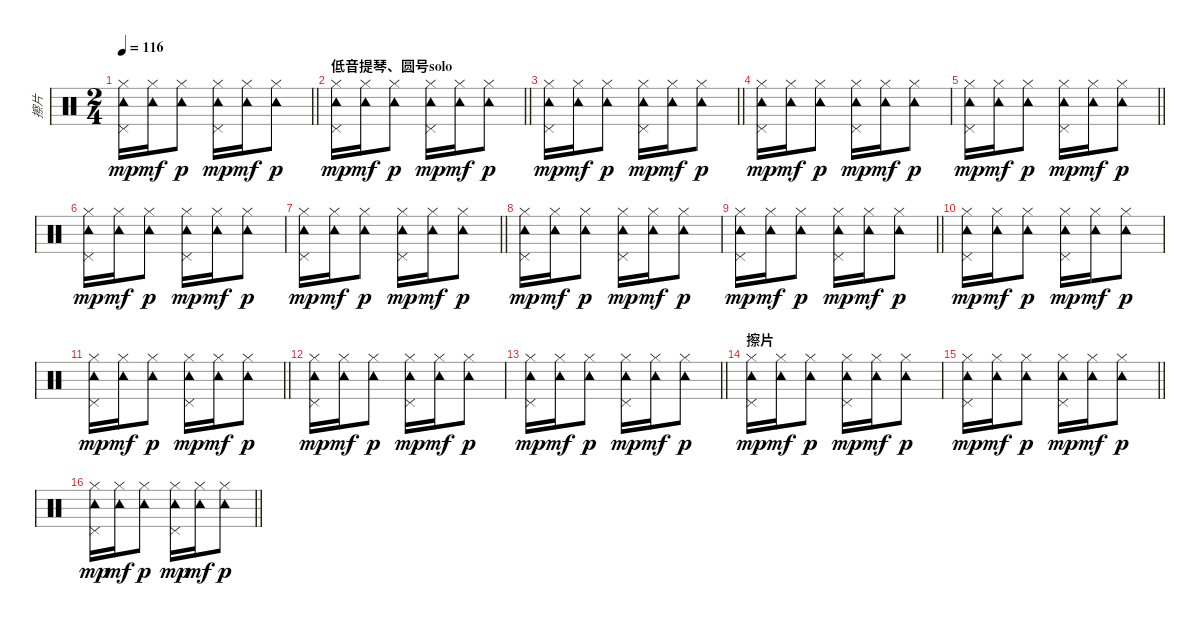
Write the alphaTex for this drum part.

\track ("擦片" "擦片") {instrument percussion}
\staff {score}
\articulation defaults
\ts (2 4)
\tempo 116
\clef neutral
\barLineRight lightlight
\ks c
("Hi-Hat (closed)" "Tambourine (hit)" "Pedal Hi-Hat (hit)").16{dy mp} ("Hi-Hat (closed)" "Tambourine (hit)").16{dy mf} ("Hi-Hat (closed)" "Tambourine (hit)").8{dy p} ("Hi-Hat (closed)" "Tambourine (hit)" "Pedal Hi-Hat (hit)").16{dy mp} ("Hi-Hat (closed)" "Tambourine (hit)").16{dy mf} ("Hi-Hat (closed)" "Tambourine (hit)").8{dy p} |
\section ("" "低音提琴、圆号solo")
\barLineRight lightlight
("Hi-Hat (closed)" "Tambourine (hit)" "Pedal Hi-Hat (hit)").16{dy mp} ("Hi-Hat (closed)" "Tambourine (hit)").16{dy mf} ("Hi-Hat (closed)" "Tambourine (hit)").8{dy p} ("Hi-Hat (closed)" "Tambourine (hit)" "Pedal Hi-Hat (hit)").16{dy mp} ("Hi-Hat (closed)" "Tambourine (hit)").16{dy mf} ("Hi-Hat (closed)" "Tambourine (hit)").8{dy p} |
\barLineRight lightlight
("Hi-Hat (closed)" "Tambourine (hit)" "Pedal Hi-Hat (hit)").16{dy mp} ("Hi-Hat (closed)" "Tambourine (hit)").16{dy mf} ("Hi-Hat (closed)" "Tambourine (hit)").8{dy p} ("Hi-Hat (closed)" "Tambourine (hit)" "Pedal Hi-Hat (hit)").16{dy mp} ("Hi-Hat (closed)" "Tambourine (hit)").16{dy mf} ("Hi-Hat (closed)" "Tambourine (hit)").8{dy p} |
("Hi-Hat (closed)" "Tambourine (hit)" "Pedal Hi-Hat (hit)").16{dy mp} ("Hi-Hat (closed)" "Tambourine (hit)").16{dy mf} ("Hi-Hat (closed)" "Tambourine (hit)").8{dy p} ("Hi-Hat (closed)" "Tambourine (hit)" "Pedal Hi-Hat (hit)").16{dy mp} ("Hi-Hat (closed)" "Tambourine (hit)").16{dy mf} ("Hi-Hat (closed)" "Tambourine (hit)").8{dy p} |
\barLineRight lightlight
("Hi-Hat (closed)" "Tambourine (hit)" "Pedal Hi-Hat (hit)").16{dy mp} ("Hi-Hat (closed)" "Tambourine (hit)").16{dy mf} ("Hi-Hat (closed)" "Tambourine (hit)").8{dy p} ("Hi-Hat (closed)" "Tambourine (hit)" "Pedal Hi-Hat (hit)").16{dy mp} ("Hi-Hat (closed)" "Tambourine (hit)").16{dy mf} ("Hi-Hat (closed)" "Tambourine (hit)").8{dy p} |
("Hi-Hat (closed)" "Tambourine (hit)" "Pedal Hi-Hat (hit)").16{dy mp} ("Hi-Hat (closed)" "Tambourine (hit)").16{dy mf} ("Hi-Hat (closed)" "Tambourine (hit)").8{dy p} ("Hi-Hat (closed)" "Tambourine (hit)" "Pedal Hi-Hat (hit)").16{dy mp} ("Hi-Hat (closed)" "Tambourine (hit)").16{dy mf} ("Hi-Hat (closed)" "Tambourine (hit)").8{dy p} |
\barLineRight lightlight
("Hi-Hat (closed)" "Tambourine (hit)" "Pedal Hi-Hat (hit)").16{dy mp} ("Hi-Hat (closed)" "Tambourine (hit)").16{dy mf} ("Hi-Hat (closed)" "Tambourine (hit)").8{dy p} ("Hi-Hat (closed)" "Tambourine (hit)" "Pedal Hi-Hat (hit)").16{dy mp} ("Hi-Hat (closed)" "Tambourine (hit)").16{dy mf} ("Hi-Hat (closed)" "Tambourine (hit)").8{dy p} |
("Hi-Hat (closed)" "Tambourine (hit)" "Pedal Hi-Hat (hit)").16{dy mp} ("Hi-Hat (closed)" "Tambourine (hit)").16{dy mf} ("Hi-Hat (closed)" "Tambourine (hit)").8{dy p} ("Hi-Hat (closed)" "Tambourine (hit)" "Pedal Hi-Hat (hit)").16{dy mp} ("Hi-Hat (closed)" "Tambourine (hit)").16{dy mf} ("Hi-Hat (closed)" "Tambourine (hit)").8{dy p} |
\barLineRight lightlight
("Hi-Hat (closed)" "Tambourine (hit)" "Pedal Hi-Hat (hit)").16{dy mp} ("Hi-Hat (closed)" "Tambourine (hit)").16{dy mf} ("Hi-Hat (closed)" "Tambourine (hit)").8{dy p} ("Hi-Hat (closed)" "Tambourine (hit)" "Pedal Hi-Hat (hit)").16{dy mp} ("Hi-Hat (closed)" "Tambourine (hit)").16{dy mf} ("Hi-Hat (closed)" "Tambourine (hit)").8{dy p} |
("Hi-Hat (closed)" "Tambourine (hit)" "Pedal Hi-Hat (hit)").16{dy mp} ("Hi-Hat (closed)" "Tambourine (hit)").16{dy mf} ("Hi-Hat (closed)" "Tambourine (hit)").8{dy p} ("Hi-Hat (closed)" "Tambourine (hit)" "Pedal Hi-Hat (hit)").16{dy mp} ("Hi-Hat (closed)" "Tambourine (hit)").16{dy mf} ("Hi-Hat (closed)" "Tambourine (hit)").8{dy p} |
\barLineRight lightlight
("Hi-Hat (closed)" "Tambourine (hit)" "Pedal Hi-Hat (hit)").16{dy mp} ("Hi-Hat (closed)" "Tambourine (hit)").16{dy mf} ("Hi-Hat (closed)" "Tambourine (hit)").8{dy p} ("Hi-Hat (closed)" "Tambourine (hit)" "Pedal Hi-Hat (hit)").16{dy mp} ("Hi-Hat (closed)" "Tambourine (hit)").16{dy mf} ("Hi-Hat (closed)" "Tambourine (hit)").8{dy p} |
("Hi-Hat (closed)" "Tambourine (hit)" "Pedal Hi-Hat (hit)").16{dy mp} ("Hi-Hat (closed)" "Tambourine (hit)").16{dy mf} ("Hi-Hat (closed)" "Tambourine (hit)").8{dy p} ("Hi-Hat (closed)" "Tambourine (hit)" "Pedal Hi-Hat (hit)").16{dy mp} ("Hi-Hat (closed)" "Tambourine (hit)").16{dy mf} ("Hi-Hat (closed)" "Tambourine (hit)").8{dy p} |
\barLineRight lightlight
("Hi-Hat (closed)" "Tambourine (hit)" "Pedal Hi-Hat (hit)").16{dy mp} ("Hi-Hat (closed)" "Tambourine (hit)").16{dy mf} ("Hi-Hat (closed)" "Tambourine (hit)").8{dy p} ("Hi-Hat (closed)" "Tambourine (hit)" "Pedal Hi-Hat (hit)").16{dy mp} ("Hi-Hat (closed)" "Tambourine (hit)").16{dy mf} ("Hi-Hat (closed)" "Tambourine (hit)").8{dy p} |
\section ("" "擦片")
("Hi-Hat (closed)" "Tambourine (hit)" "Pedal Hi-Hat (hit)").16{dy mp} ("Hi-Hat (closed)" "Tambourine (hit)").16{dy mf} ("Hi-Hat (closed)" "Tambourine (hit)").8{dy p} ("Hi-Hat (closed)" "Tambourine (hit)" "Pedal Hi-Hat (hit)").16{dy mp} ("Hi-Hat (closed)" "Tambourine (hit)").16{dy mf} ("Hi-Hat (closed)" "Tambourine (hit)").8{dy p} |
\barLineRight lightlight
("Hi-Hat (closed)" "Tambourine (hit)" "Pedal Hi-Hat (hit)").16{dy mp} ("Hi-Hat (closed)" "Tambourine (hit)").16{dy mf} ("Hi-Hat (closed)" "Tambourine (hit)").8{dy p} ("Hi-Hat (closed)" "Tambourine (hit)" "Pedal Hi-Hat (hit)").16{dy mp} ("Hi-Hat (closed)" "Tambourine (hit)").16{dy mf} ("Hi-Hat (closed)" "Tambourine (hit)").8{dy p} |
\barLineRight lightlight
("Hi-Hat (closed)" "Tambourine (hit)" "Pedal Hi-Hat (hit)").16{dy mp} ("Hi-Hat (closed)" "Tambourine (hit)").16{dy mf} ("Hi-Hat (closed)" "Tambourine (hit)").8{dy p} ("Hi-Hat (closed)" "Tambourine (hit)" "Pedal Hi-Hat (hit)").16{dy mp} ("Hi-Hat (closed)" "Tambourine (hit)").16{dy mf} ("Hi-Hat (closed)" "Tambourine (hit)").8{dy p}
